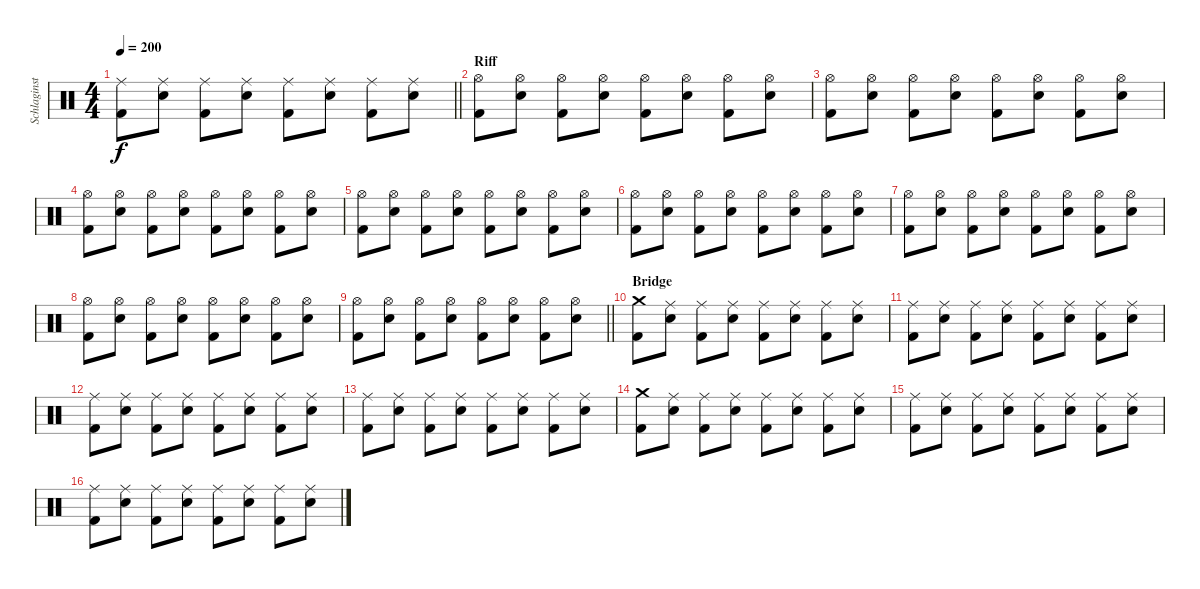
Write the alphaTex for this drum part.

\track ("Schlaginstrumente - Auswahl" "Schlaginst") {instrument percussion}
\staff {score}
\articulation defaults
\ts (4 4)
\tempo 200
\clef neutral
\barLineRight lightlight
\ks c
("Ride (middle)" "Kick (hit) 2").8{dy f} ("Ride (middle)" "Electric Snare (hit)").8 ("Ride (middle)" "Kick (hit) 2").8 ("Ride (middle)" "Electric Snare (hit)").8 ("Ride (middle)" "Kick (hit) 2").8 ("Ride (middle)" "Electric Snare (hit)").8 ("Ride (middle)" "Kick (hit) 2").8 ("Ride (middle)" "Electric Snare (hit)").8 |
\section ("" "Riff")
("Hi-Hat (open)" "Kick (hit) 2").8 ("Hi-Hat (open)" "Electric Snare (hit)").8 ("Hi-Hat (open)" "Kick (hit) 2").8 ("Hi-Hat (open)" "Electric Snare (hit)").8 ("Hi-Hat (open)" "Kick (hit) 2").8 ("Hi-Hat (open)" "Electric Snare (hit)").8 ("Hi-Hat (open)" "Kick (hit) 2").8 ("Hi-Hat (open)" "Electric Snare (hit)").8 |
("Hi-Hat (open)" "Kick (hit) 2").8 ("Hi-Hat (open)" "Electric Snare (hit)").8 ("Hi-Hat (open)" "Kick (hit) 2").8 ("Hi-Hat (open)" "Electric Snare (hit)").8 ("Hi-Hat (open)" "Kick (hit) 2").8 ("Hi-Hat (open)" "Electric Snare (hit)").8 ("Hi-Hat (open)" "Kick (hit) 2").8 ("Hi-Hat (open)" "Electric Snare (hit)").8 |
("Hi-Hat (open)" "Kick (hit) 2").8 ("Hi-Hat (open)" "Electric Snare (hit)").8 ("Hi-Hat (open)" "Kick (hit) 2").8 ("Hi-Hat (open)" "Electric Snare (hit)").8 ("Hi-Hat (open)" "Kick (hit) 2").8 ("Hi-Hat (open)" "Electric Snare (hit)").8 ("Hi-Hat (open)" "Kick (hit) 2").8 ("Hi-Hat (open)" "Electric Snare (hit)").8 |
("Hi-Hat (open)" "Kick (hit) 2").8 ("Hi-Hat (open)" "Electric Snare (hit)").8 ("Hi-Hat (open)" "Kick (hit) 2").8 ("Hi-Hat (open)" "Electric Snare (hit)").8 ("Hi-Hat (open)" "Kick (hit) 2").8 ("Hi-Hat (open)" "Electric Snare (hit)").8 ("Hi-Hat (open)" "Kick (hit) 2").8 ("Hi-Hat (open)" "Electric Snare (hit)").8 |
("Hi-Hat (open)" "Kick (hit) 2").8 ("Hi-Hat (open)" "Electric Snare (hit)").8 ("Hi-Hat (open)" "Kick (hit) 2").8 ("Hi-Hat (open)" "Electric Snare (hit)").8 ("Hi-Hat (open)" "Kick (hit) 2").8 ("Hi-Hat (open)" "Electric Snare (hit)").8 ("Hi-Hat (open)" "Kick (hit) 2").8 ("Hi-Hat (open)" "Electric Snare (hit)").8 |
("Hi-Hat (open)" "Kick (hit) 2").8 ("Hi-Hat (open)" "Electric Snare (hit)").8 ("Hi-Hat (open)" "Kick (hit) 2").8 ("Hi-Hat (open)" "Electric Snare (hit)").8 ("Hi-Hat (open)" "Kick (hit) 2").8 ("Hi-Hat (open)" "Electric Snare (hit)").8 ("Hi-Hat (open)" "Kick (hit) 2").8 ("Hi-Hat (open)" "Electric Snare (hit)").8 |
("Hi-Hat (open)" "Kick (hit) 2").8 ("Hi-Hat (open)" "Electric Snare (hit)").8 ("Hi-Hat (open)" "Kick (hit) 2").8 ("Hi-Hat (open)" "Electric Snare (hit)").8 ("Hi-Hat (open)" "Kick (hit) 2").8 ("Hi-Hat (open)" "Electric Snare (hit)").8 ("Hi-Hat (open)" "Kick (hit) 2").8 ("Hi-Hat (open)" "Electric Snare (hit)").8 |
\barLineRight lightlight
("Hi-Hat (open)" "Kick (hit) 2").8 ("Hi-Hat (open)" "Electric Snare (hit)").8 ("Hi-Hat (open)" "Kick (hit) 2").8 ("Hi-Hat (open)" "Electric Snare (hit)").8 ("Hi-Hat (open)" "Kick (hit) 2").8 ("Hi-Hat (open)" "Electric Snare (hit)").8 ("Hi-Hat (open)" "Kick (hit) 2").8 ("Hi-Hat (open)" "Electric Snare (hit)").8 |
\section ("" "Bridge")
("Crash medium (hit)" "Kick (hit) 2").8 ("Ride (middle)" "Electric Snare (hit)").8 ("Ride (middle)" "Kick (hit) 2").8 ("Ride (middle)" "Electric Snare (hit)").8 ("Ride (middle)" "Kick (hit) 2").8 ("Ride (middle)" "Electric Snare (hit)").8 ("Ride (middle)" "Kick (hit) 2").8 ("Ride (middle)" "Electric Snare (hit)").8 |
("Ride (middle)" "Kick (hit) 2").8 ("Ride (middle)" "Electric Snare (hit)").8 ("Ride (middle)" "Kick (hit) 2").8 ("Ride (middle)" "Electric Snare (hit)").8 ("Ride (middle)" "Kick (hit) 2").8 ("Ride (middle)" "Electric Snare (hit)").8 ("Ride (middle)" "Kick (hit) 2").8 ("Ride (middle)" "Electric Snare (hit)").8 |
("Ride (middle)" "Kick (hit) 2").8 ("Ride (middle)" "Electric Snare (hit)").8 ("Ride (middle)" "Kick (hit) 2").8 ("Ride (middle)" "Electric Snare (hit)").8 ("Ride (middle)" "Kick (hit) 2").8 ("Ride (middle)" "Electric Snare (hit)").8 ("Ride (middle)" "Kick (hit) 2").8 ("Ride (middle)" "Electric Snare (hit)").8 |
("Ride (middle)" "Kick (hit) 2").8 ("Ride (middle)" "Electric Snare (hit)").8 ("Ride (middle)" "Kick (hit) 2").8 ("Ride (middle)" "Electric Snare (hit)").8 ("Ride (middle)" "Kick (hit) 2").8 ("Ride (middle)" "Electric Snare (hit)").8 ("Ride (middle)" "Kick (hit) 2").8 ("Ride (middle)" "Electric Snare (hit)").8 |
("Crash medium (hit)" "Kick (hit) 2").8 ("Ride (middle)" "Electric Snare (hit)").8 ("Ride (middle)" "Kick (hit) 2").8 ("Ride (middle)" "Electric Snare (hit)").8 ("Ride (middle)" "Kick (hit) 2").8 ("Ride (middle)" "Electric Snare (hit)").8 ("Ride (middle)" "Kick (hit) 2").8 ("Ride (middle)" "Electric Snare (hit)").8 |
("Ride (middle)" "Kick (hit) 2").8 ("Ride (middle)" "Electric Snare (hit)").8 ("Ride (middle)" "Kick (hit) 2").8 ("Ride (middle)" "Electric Snare (hit)").8 ("Ride (middle)" "Kick (hit) 2").8 ("Ride (middle)" "Electric Snare (hit)").8 ("Ride (middle)" "Kick (hit) 2").8 ("Ride (middle)" "Electric Snare (hit)").8 |
("Ride (middle)" "Kick (hit) 2").8 ("Ride (middle)" "Electric Snare (hit)").8 ("Ride (middle)" "Kick (hit) 2").8 ("Ride (middle)" "Electric Snare (hit)").8 ("Ride (middle)" "Kick (hit) 2").8 ("Ride (middle)" "Electric Snare (hit)").8 ("Ride (middle)" "Kick (hit) 2").8 ("Ride (middle)" "Electric Snare (hit)").8
